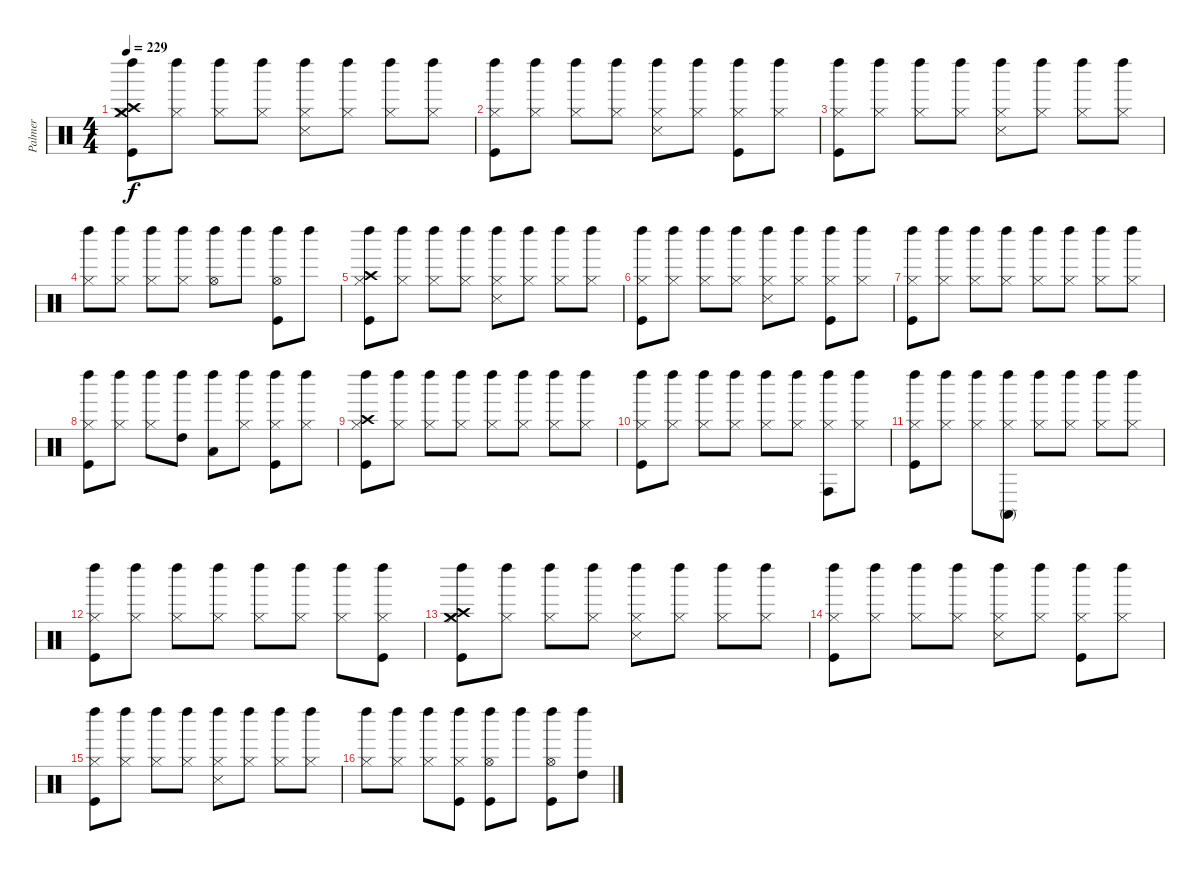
\track ("Palmer" "Palmer") {instrument percussion}
\staff {score}
\articulation defaults
\ts (4 4)
\tempo 229
\clef neutral
\ks c
("Crash medium (hit)" "Kick (hit)" "Hi-Hat (closed)" "Crash high (hit)" "Left Maraca (hit)").8{dy f} ("Hi-Hat (closed)" "Left Maraca (hit)").8 ("Hi-Hat (closed)" "Left Maraca (hit)").8 ("Hi-Hat (closed)" "Left Maraca (hit)").8 ("Hi-Hat (closed)" "Snare (side stick) 3" "Left Maraca (hit)").8 ("Hi-Hat (closed)" "Left Maraca (hit)").8 ("Hi-Hat (closed)" "Left Maraca (hit)").8 ("Hi-Hat (closed)" "Left Maraca (hit)").8 |
("Kick (hit)" "Hi-Hat (closed)" "Left Maraca (hit)").8 ("Hi-Hat (closed)" "Left Maraca (hit)").8 ("Hi-Hat (closed)" "Left Maraca (hit)").8 ("Hi-Hat (closed)" "Left Maraca (hit)").8 ("Hi-Hat (closed)" "Snare (side stick) 3" "Left Maraca (hit)").8 ("Hi-Hat (closed)" "Left Maraca (hit)").8 ("Kick (hit)" "Hi-Hat (closed)" "Left Maraca (hit)").8 ("Hi-Hat (closed)" "Left Maraca (hit)").8 |
("Kick (hit)" "Hi-Hat (closed)" "Left Maraca (hit)").8 ("Hi-Hat (closed)" "Left Maraca (hit)").8 ("Hi-Hat (closed)" "Left Maraca (hit)").8 ("Hi-Hat (closed)" "Left Maraca (hit)").8 ("Hi-Hat (closed)" "Snare (side stick) 3" "Left Maraca (hit)").8 ("Hi-Hat (closed)" "Left Maraca (hit)").8 ("Hi-Hat (closed)" "Left Maraca (hit)").8 ("Hi-Hat (closed)" "Left Maraca (hit)").8 |
("Hi-Hat (closed)" "Left Maraca (hit)").8 ("Hi-Hat (closed)" "Left Maraca (hit)").8 ("Hi-Hat (closed)" "Left Maraca (hit)").8 ("Hi-Hat (closed)" "Left Maraca (hit)").8 ("Hi-Hat (open)" "Left Maraca (hit)").8 "Left Maraca (hit)".8 ("Kick (hit)" "Hi-Hat (open)" "Left Maraca (hit)").8 "Left Maraca (hit)".8 |
("Kick (hit)" "Hi-Hat (closed)" "Crash high (hit)" "Left Maraca (hit)").8 ("Hi-Hat (closed)" "Left Maraca (hit)").8 ("Hi-Hat (closed)" "Left Maraca (hit)").8 ("Hi-Hat (closed)" "Left Maraca (hit)").8 ("Hi-Hat (closed)" "Snare (side stick) 3" "Left Maraca (hit)").8 ("Hi-Hat (closed)" "Left Maraca (hit)").8 ("Hi-Hat (closed)" "Left Maraca (hit)").8 ("Hi-Hat (closed)" "Left Maraca (hit)").8 |
("Kick (hit)" "Hi-Hat (closed)" "Left Maraca (hit)").8 ("Hi-Hat (closed)" "Left Maraca (hit)").8 ("Hi-Hat (closed)" "Left Maraca (hit)").8 ("Hi-Hat (closed)" "Left Maraca (hit)").8 ("Hi-Hat (closed)" "Snare (side stick) 3" "Left Maraca (hit)").8 ("Hi-Hat (closed)" "Left Maraca (hit)").8 ("Kick (hit)" "Hi-Hat (closed)" "Left Maraca (hit)").8 ("Hi-Hat (closed)" "Left Maraca (hit)").8 |
("Kick (hit)" "Hi-Hat (closed)" "Left Maraca (hit)").8 ("Hi-Hat (closed)" "Left Maraca (hit)").8 ("Hi-Hat (closed)" "Left Maraca (hit)").8 ("Hi-Hat (closed)" "Left Maraca (hit)").8 ("Hi-Hat (closed)" "Left Maraca (hit)").8 ("Hi-Hat (closed)" "Left Maraca (hit)").8 ("Hi-Hat (closed)" "Left Maraca (hit)").8 ("Hi-Hat (closed)" "Left Maraca (hit)").8 |
("Kick (hit)" "Hi-Hat (closed)" "Left Maraca (hit)").8 ("Hi-Hat (closed)" "Left Maraca (hit)").8 ("Hi-Hat (closed)" "Left Maraca (hit)").8 ("High Tom (hit)" "Left Maraca (hit)").8 ("Low Tom (hit)" "Left Maraca (hit)").8 ("Hi-Hat (closed)" "Left Maraca (hit)").8 ("Kick (hit)" "Hi-Hat (closed)" "Left Maraca (hit)").8 ("Hi-Hat (closed)" "Left Maraca (hit)").8 |
("Kick (hit)" "Hi-Hat (closed)" "Crash high (hit)" "Left Maraca (hit)").8 ("Hi-Hat (closed)" "Left Maraca (hit)").8 ("Hi-Hat (closed)" "Left Maraca (hit)").8 ("Hi-Hat (closed)" "Left Maraca (hit)").8 ("Hi-Hat (closed)" "Left Maraca (hit)").8 ("Hi-Hat (closed)" "Left Maraca (hit)").8 ("Hi-Hat (closed)" "Left Maraca (hit)").8 ("Hi-Hat (closed)" "Left Maraca (hit)").8 |
("Kick (hit)" "Hi-Hat (closed)" "Left Maraca (hit)").8 ("Hi-Hat (closed)" "Left Maraca (hit)").8 ("Hi-Hat (closed)" "Left Maraca (hit)").8 ("Hi-Hat (closed)" "Left Maraca (hit)").8 ("Hi-Hat (closed)" "Left Maraca (hit)").8 ("Hi-Hat (closed)" "Left Maraca (hit)").8 ("Hi-Hat (closed)" "Conga high (hit)" "Left Maraca (hit)").8 ("Hi-Hat (closed)" "Left Maraca (hit)").8 |
("Kick (hit)" "Hi-Hat (closed)" "Left Maraca (hit)").8 ("Hi-Hat (closed)" "Left Maraca (hit)").8 ("Hi-Hat (closed)" "Left Maraca (hit)").8 ("Hi-Hat (closed)" "Conga high (mute)" "Left Maraca (hit)").8 ("Hi-Hat (closed)" "Left Maraca (hit)").8 ("Hi-Hat (closed)" "Left Maraca (hit)").8 ("Hi-Hat (closed)" "Left Maraca (hit)").8 ("Hi-Hat (closed)" "Left Maraca (hit)").8 |
("Kick (hit)" "Hi-Hat (closed)" "Left Maraca (hit)").8 ("Hi-Hat (closed)" "Left Maraca (hit)").8 ("Hi-Hat (closed)" "Left Maraca (hit)").8 ("Hi-Hat (closed)" "Left Maraca (hit)").8 ("Hi-Hat (closed)" "Left Maraca (hit)").8 ("Hi-Hat (closed)" "Left Maraca (hit)").8 ("Hi-Hat (closed)" "Left Maraca (hit)").8 ("Kick (hit)" "Hi-Hat (closed)" "Left Maraca (hit)").8 |
("Crash medium (hit)" "Kick (hit)" "Hi-Hat (closed)" "Crash high (hit)" "Left Maraca (hit)").8 ("Hi-Hat (closed)" "Left Maraca (hit)").8 ("Hi-Hat (closed)" "Left Maraca (hit)").8 ("Hi-Hat (closed)" "Left Maraca (hit)").8 ("Hi-Hat (closed)" "Snare (side stick) 3" "Left Maraca (hit)").8 ("Hi-Hat (closed)" "Left Maraca (hit)").8 ("Hi-Hat (closed)" "Left Maraca (hit)").8 ("Hi-Hat (closed)" "Left Maraca (hit)").8 |
("Kick (hit)" "Hi-Hat (closed)" "Left Maraca (hit)").8 ("Hi-Hat (closed)" "Left Maraca (hit)").8 ("Hi-Hat (closed)" "Left Maraca (hit)").8 ("Hi-Hat (closed)" "Left Maraca (hit)").8 ("Hi-Hat (closed)" "Snare (side stick) 3" "Left Maraca (hit)").8 ("Hi-Hat (closed)" "Left Maraca (hit)").8 ("Kick (hit)" "Hi-Hat (closed)" "Left Maraca (hit)").8 ("Hi-Hat (closed)" "Left Maraca (hit)").8 |
("Kick (hit)" "Hi-Hat (closed)" "Left Maraca (hit)").8 ("Hi-Hat (closed)" "Left Maraca (hit)").8 ("Hi-Hat (closed)" "Left Maraca (hit)").8 ("Hi-Hat (closed)" "Left Maraca (hit)").8 ("Hi-Hat (closed)" "Snare (side stick) 3" "Left Maraca (hit)").8 ("Hi-Hat (closed)" "Left Maraca (hit)").8 ("Hi-Hat (closed)" "Left Maraca (hit)").8 ("Hi-Hat (closed)" "Left Maraca (hit)").8 |
("Hi-Hat (closed)" "Left Maraca (hit)").8 ("Hi-Hat (closed)" "Left Maraca (hit)").8 ("Hi-Hat (closed)" "Left Maraca (hit)").8 ("Kick (hit)" "Hi-Hat (closed)" "Left Maraca (hit)").8 ("Kick (hit)" "Hi-Hat (open)" "Left Maraca (hit)").8 "Left Maraca (hit)".8 ("Kick (hit)" "Hi-Hat (open)" "Left Maraca (hit)").8 ("High Tom (hit)" "Left Maraca (hit)").8
